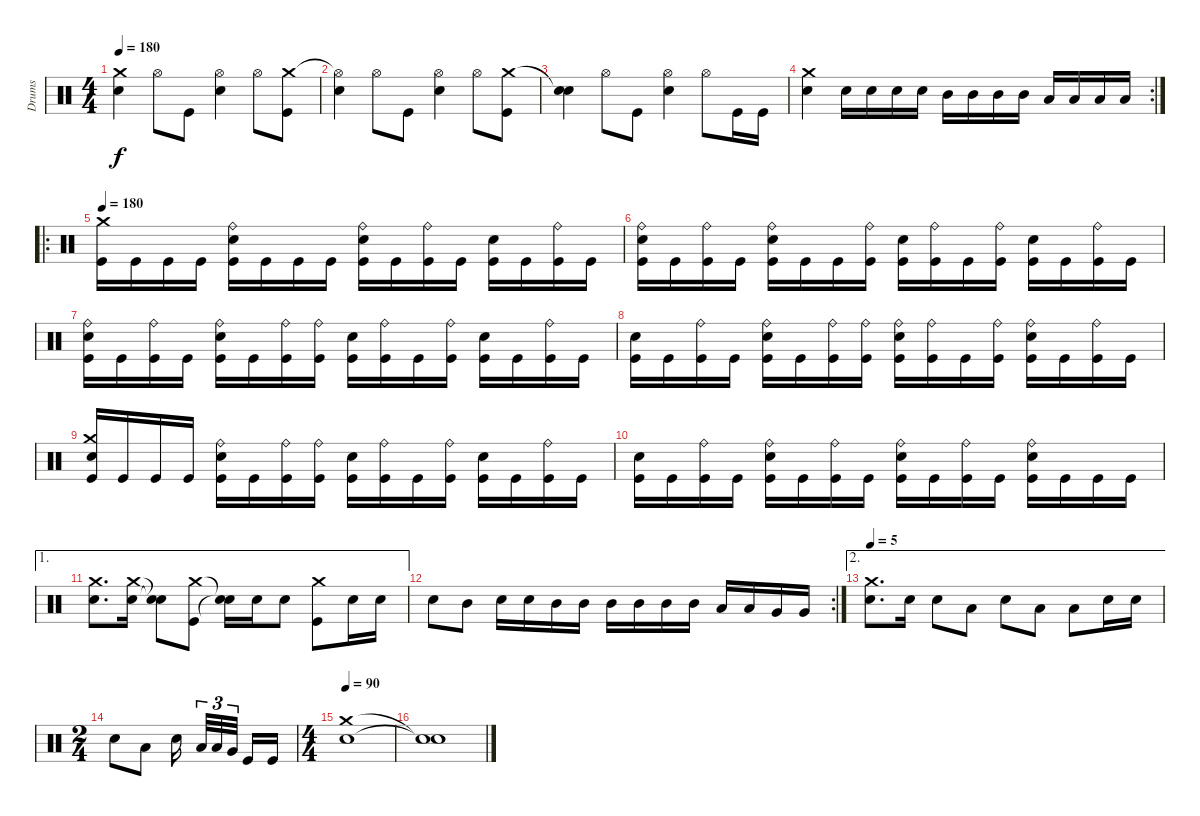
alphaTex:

\track ("Drums" "Drums") {instrument percussion}
\staff {score}
\articulation defaults
\ts (4 4)
\tempo 180
\clef neutral
\ks c
("Electric Snare (hit)" "Crash medium (hit)").4{dy f} "Hi-Hat (open)".8 "Kick (hit)".8 ("Electric Snare (hit)" "Hi-Hat (open)").4 "Hi-Hat (open)".8 ("Kick (hit)" "Crash medium (hit)").8 |
("Electric Snare (hit)" "Hi-Hat (open)"{t}).4 "Hi-Hat (open)".8 "Kick (hit)".8 ("Electric Snare (hit)" "Hi-Hat (open)").4 "Hi-Hat (open)".8 ("Kick (hit)" "Crash medium (hit)").8 |
("Electric Snare (hit)" "Snare (hit)"{t}).4 "Hi-Hat (open)".8 "Kick (hit)".8 ("Electric Snare (hit)" "Hi-Hat (open)").4 "Hi-Hat (open)".8 "Kick (hit)".16 "Kick (hit)".16 |
\rc 2
("Electric Snare (hit)" "Crash medium (hit)").4 "Electric Snare (hit)".16 "Electric Snare (hit)".16 "Electric Snare (hit)".16 "Electric Snare (hit)".16 "Mid Tom (hit)".16 "Mid Tom (hit)".16 "Mid Tom (hit)".16 "Mid Tom (hit)".16 "Low Tom (hit)".16 "Low Tom (hit)".16 "Low Tom (hit)".16 "Low Tom (hit)".16 |
\ro
\tempo 180
("Kick (hit)" "Crash medium (hit)").16 "Kick (hit)".16 "Kick (hit)".16 "Kick (hit)".16 ("Kick (hit)" "Electric Snare (hit)" "Ride (bell)").16 "Kick (hit)".16 "Kick (hit)".16 "Kick (hit)".16 ("Kick (hit)" "Electric Snare (hit)" "Ride (bell)").16 "Kick (hit)".16 ("Kick (hit)" "Ride (bell)").16 "Kick (hit)".16 ("Kick (hit)" "Electric Snare (hit)").16 "Kick (hit)".16 ("Kick (hit)" "Ride (bell)").16 "Kick (hit)".16 |
("Kick (hit)" "Electric Snare (hit)" "Ride (bell)").16 "Kick (hit)".16 ("Kick (hit)" "Ride (bell)").16 "Kick (hit)".16 ("Kick (hit)" "Electric Snare (hit)" "Ride (bell)").16 "Kick (hit)".16 "Kick (hit)".16 ("Kick (hit)" "Ride (bell)").16 ("Kick (hit)" "Electric Snare (hit)").16 ("Kick (hit)" "Ride (bell)").16 "Kick (hit)".16 ("Kick (hit)" "Ride (bell)").16 ("Kick (hit)" "Electric Snare (hit)").16 "Kick (hit)".16 ("Kick (hit)" "Ride (bell)").16 "Kick (hit)".16 |
("Kick (hit)" "Electric Snare (hit)" "Ride (bell)").16 "Kick (hit)".16 ("Kick (hit)" "Ride (bell)").16 "Kick (hit)".16 ("Kick (hit)" "Electric Snare (hit)" "Ride (bell)").16 "Kick (hit)".16 ("Kick (hit)" "Ride (bell)").16 ("Kick (hit)" "Ride (bell)").16 ("Kick (hit)" "Electric Snare (hit)").16 ("Kick (hit)" "Ride (bell)").16 "Kick (hit)".16 ("Kick (hit)" "Ride (bell)").16 ("Kick (hit)" "Electric Snare (hit)").16 "Kick (hit)".16 ("Kick (hit)" "Ride (bell)").16 "Kick (hit)".16 |
("Kick (hit)" "Electric Snare (hit)").16 "Kick (hit)".16 ("Kick (hit)" "Ride (bell)").16 "Kick (hit)".16 ("Kick (hit)" "Electric Snare (hit)" "Ride (bell)").16 "Kick (hit)".16 ("Kick (hit)" "Ride (bell)").16 ("Kick (hit)" "Ride (bell)").16 ("Kick (hit)" "Electric Snare (hit)" "Ride (bell)").16 ("Kick (hit)" "Ride (bell)").16 "Kick (hit)".16 ("Kick (hit)" "Ride (bell)").16 ("Kick (hit)" "Electric Snare (hit)" "Ride (bell)").16 "Kick (hit)".16 ("Kick (hit)" "Ride (bell)").16 "Kick (hit)".16 |
("Kick (hit)" "Electric Snare (hit)" "Crash medium (hit)").16 "Kick (hit)".16 "Kick (hit)".16 "Kick (hit)".16 ("Kick (hit)" "Electric Snare (hit)" "Ride (bell)").16 "Kick (hit)".16 ("Kick (hit)" "Ride (bell)").16 ("Kick (hit)" "Ride (bell)").16 ("Kick (hit)" "Electric Snare (hit)").16 ("Kick (hit)" "Ride (bell)").16 "Kick (hit)".16 ("Kick (hit)" "Ride (bell)").16 ("Kick (hit)" "Electric Snare (hit)").16 "Kick (hit)".16 ("Kick (hit)" "Ride (bell)").16 "Kick (hit)".16 |
("Kick (hit)" "Electric Snare (hit)").16 "Kick (hit)".16 ("Kick (hit)" "Ride (bell)").16 "Kick (hit)".16 ("Kick (hit)" "Electric Snare (hit)" "Ride (bell)").16 "Kick (hit)".16 ("Kick (hit)" "Ride (bell)").16 "Kick (hit)".16 ("Kick (hit)" "Electric Snare (hit)" "Ride (bell)").16 "Kick (hit)".16 ("Kick (hit)" "Ride (bell)").16 "Kick (hit)".16 ("Kick (hit)" "Electric Snare (hit)" "Ride (bell)").16 "Kick (hit)".16 "Kick (hit)".16 "Kick (hit)".16 |
\ae 1
("Electric Snare (hit)" "Crash medium (hit)").8{d} ("Electric Snare (hit)" "Crash medium (hit)").16 ("Snare (hit)"{t} "Snare (hit)"{t}).8 ("Kick (hit)" "Crash medium (hit)").8 ("Snare (hit)"{t} "Snare (hit)"{t}).16 "Electric Snare (hit)".16 "Electric Snare (hit)".8 ("Kick (hit)" "Crash medium (hit)").8 "Electric Snare (hit)".16 "Electric Snare (hit)".16 |
\rc 2 "Electric Snare (hit)".8 "Mid Tom (hit)".8 "Electric Snare (hit)".16 "Electric Snare (hit)".16 "Mid Tom (hit)".16 "Mid Tom (hit)".16 "Mid Tom (hit)".16 "Mid Tom (hit)".16 "Mid Tom (hit)".16 "Mid Tom (hit)".16 "Low Tom (hit)".16 "Low Tom (hit)".16 "Very Low Tom (hit)".16 "Very Low Tom (hit)".16
|
\ae 2
\tempo 5
("Electric Snare (hit)" "Crash medium (hit)").8{d} "Electric Snare (hit)".16 "Electric Snare (hit)".8 "Low Tom (hit)".8 "Electric Snare (hit)".8 "Low Tom (hit)".8 "Low Tom (hit)".8 "Electric Snare (hit)".16 "Electric Snare (hit)".16 |
\ts (2 4)
"Electric Snare (hit)".8 "Low Tom (hit)".8 "Electric Snare (hit)".16{beam splitsecondary} "Low Tom (hit)".32{tu (3 2)} "Low Tom (hit)".32{tu (3 2)} "Very Low Tom (hit)".32{tu (3 2) beam splitsecondary} "Kick (hit)".16 "Kick (hit)".16 |
\ts (4 4)
\tempo 90
("Electric Snare (hit)" "Crash medium (hit)").1 |
("Snare (hit)"{t} "Snare (hit)"{t}).1
